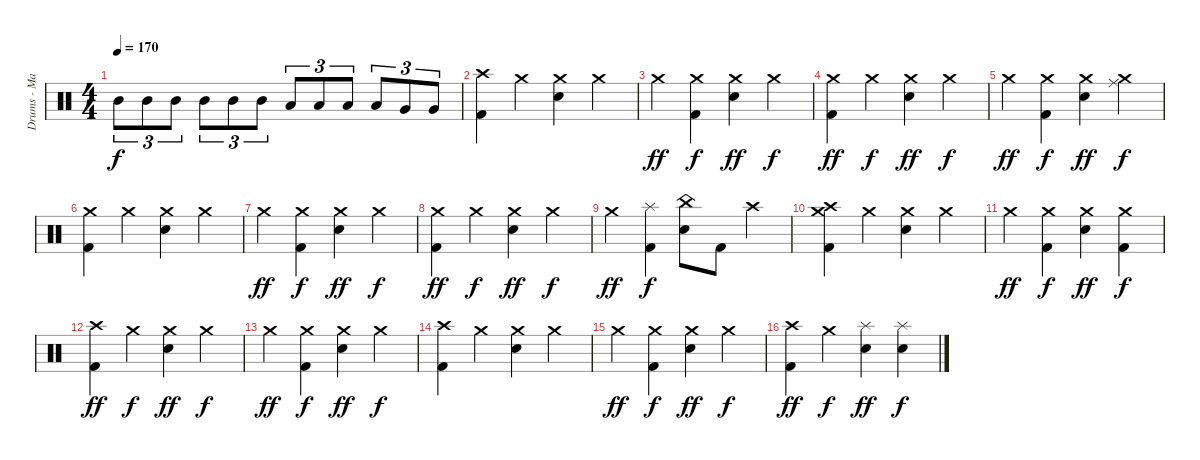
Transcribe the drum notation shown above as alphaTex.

\track ("Drums - Mario Duplantier" "Drums - Ma") {instrument percussion}
\staff {score}
\articulation defaults
\ts (4 4)
\tempo 170
\clef neutral
\ks c "Mid Tom (hit)".8{tu (3 2) dy f} "Mid Tom (hit)".8{tu (3 2)} "Mid Tom (hit)".8{tu (3 2)} "Mid Tom (hit)".8{tu (3 2)} "Mid Tom (hit)".8{tu (3 2)} "Mid Tom (hit)".8{tu (3 2)} "Low Tom (hit)".8{tu (3 2)} "Low Tom (hit)".8{tu (3 2)} "Low Tom (hit)".8{tu (3 2)} "Low Tom (hit)".8{tu (3 2)} "Very Low Tom (hit)".8{tu (3 2)} "Very Low Tom (hit)".8{tu (3 2)}
|
("Crash high (hit)" "Kick (hit) 2").4 "Crash medium (hit)".4 ("Crash medium (hit)" "Snare (hit) 2").4 "Crash medium (hit)".4 |
"Crash medium (hit)".4{dy ff} ("Crash medium (hit)" "Kick (hit) 2").4{dy f} ("Crash medium (hit)" "Snare (hit) 2").4{dy ff} "Crash medium (hit)".4{dy f} |
("Crash medium (hit)" "Kick (hit) 2").4{dy ff} "Crash medium (hit)".4{dy f} ("Crash medium (hit)" "Snare (hit) 2").4{dy ff} "Crash medium (hit)".4{dy f} |
"Crash medium (hit)".4{dy ff} ("Crash medium (hit)" "Kick (hit) 2").4{dy f} ("Crash medium (hit)" "Snare (hit) 2").4{dy ff} ("Crash medium (hit)" "Ride (middle)").4{dy f} |
("Crash medium (hit)" "Kick (hit) 2").4 "Crash medium (hit)".4 ("Crash medium (hit)" "Snare (hit) 2").4 "Crash medium (hit)".4 |
"Crash medium (hit)".4{dy ff} ("Crash medium (hit)" "Kick (hit) 2").4{dy f} ("Crash medium (hit)" "Snare (hit) 2").4{dy ff} "Crash medium (hit)".4{dy f} |
("Crash medium (hit)" "Kick (hit) 2").4{dy ff} "Crash medium (hit)".4{dy f} ("Crash medium (hit)" "Snare (hit) 2").4{dy ff} "Crash medium (hit)".4{dy f} |
"Crash medium (hit)".4{dy ff} ("Splash (hit)" "Kick (hit) 2").4{dy f} ("China (hit)" "Snare (hit) 2").8 "Kick (hit) 2".8 "Crash high (hit)".4 |
("Crash high (hit)" "Crash medium (hit)" "Kick (hit) 2").4 "Crash medium (hit)".4 ("Crash medium (hit)" "Snare (hit) 2").4 "Crash medium (hit)".4 |
"Crash medium (hit)".4{dy ff} ("Crash medium (hit)" "Kick (hit) 2").4{dy f} ("Crash medium (hit)" "Snare (hit) 2").4{dy ff} ("Crash medium (hit)" "Kick (hit) 2").4{dy f} |
("Crash high (hit)" "Kick (hit) 2").4{dy ff} "Crash medium (hit)".4{dy f} ("Crash medium (hit)" "Snare (hit) 2").4{dy ff} "Crash medium (hit)".4{dy f} |
"Crash medium (hit)".4{dy ff} ("Crash medium (hit)" "Kick (hit) 2").4{dy f} ("Crash medium (hit)" "Snare (hit) 2").4{dy ff} "Crash medium (hit)".4{dy f} |
("Crash high (hit)" "Kick (hit) 2").4 "Crash medium (hit)".4 ("Crash medium (hit)" "Snare (hit) 2").4 "Crash medium (hit)".4 |
"Crash medium (hit)".4{dy ff} ("Crash medium (hit)" "Kick (hit) 2").4{dy f} ("Crash medium (hit)" "Snare (hit) 2").4{dy ff} "Crash medium (hit)".4{dy f} |
("Crash high (hit)" "Kick (hit) 2").4{dy ff} "Crash medium (hit)".4{dy f} ("Splash (hit)" "Snare (hit) 2").4{dy ff} ("Splash (hit)" "Snare (hit) 2").4{dy f}
